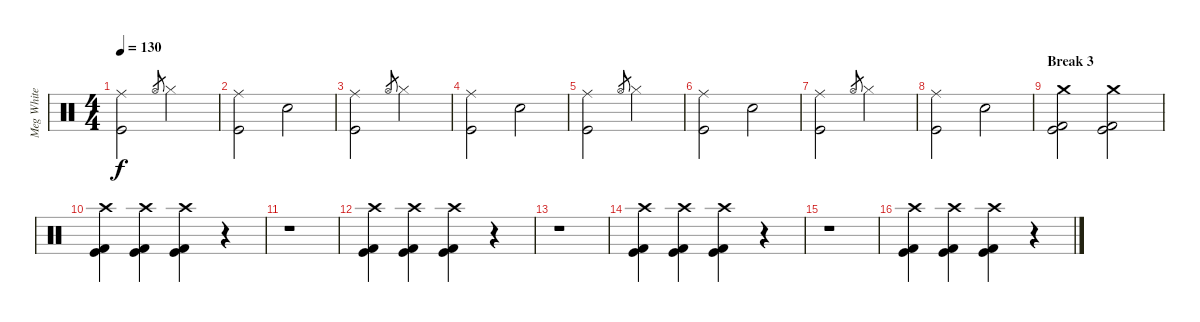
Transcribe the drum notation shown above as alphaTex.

\track ("Meg White (Drums)" "Meg White ") {instrument percussion}
\staff {score}
\articulation defaults
\ts (4 4)
\tempo 130
\clef neutral
\ks c
("Kick (hit)" "Ride (middle)").2{dy f} "Hi-Hat (open)"{h}.8{gr} "Hi-Hat (closed)".2 |
("Kick (hit)" "Ride (middle)").2 "Snare (hit) 2".2 |
("Kick (hit)" "Ride (middle)").2 "Hi-Hat (open)"{h}.8{gr} "Hi-Hat (closed)".2 |
("Kick (hit)" "Ride (middle)").2 "Snare (hit) 2".2 |
("Kick (hit)" "Ride (middle)").2 "Hi-Hat (open)"{h}.8{gr} "Hi-Hat (closed)".2 |
("Kick (hit)" "Ride (middle)").2 "Snare (hit) 2".2 |
("Kick (hit)" "Ride (middle)").2 "Hi-Hat (open)"{h}.8{gr} "Hi-Hat (closed)".2 |
("Kick (hit)" "Ride (middle)").2 "Snare (hit) 2".2 |
\section ("" "Break 3")
("Kick (hit)" "Kick (hit) 2" "Crash medium (hit)").2 ("Kick (hit)" "Kick (hit) 2" "Crash medium (hit)").2 |
("Kick (hit)" "Kick (hit) 2" "Crash high (hit)").4 ("Kick (hit)" "Kick (hit) 2" "Crash high (hit)").4 ("Kick (hit)" "Kick (hit) 2" "Crash high (hit)").4 r.4 |
r.1 |
("Kick (hit)" "Kick (hit) 2" "Crash high (hit)").4 ("Kick (hit)" "Kick (hit) 2" "Crash high (hit)").4 ("Kick (hit)" "Kick (hit) 2" "Crash high (hit)").4 r.4 |
r.1 |
("Kick (hit)" "Kick (hit) 2" "Crash high (hit)").4 ("Kick (hit)" "Kick (hit) 2" "Crash high (hit)").4 ("Kick (hit)" "Kick (hit) 2" "Crash high (hit)").4 r.4 |
r.1 |
("Kick (hit)" "Kick (hit) 2" "Crash high (hit)").4 ("Kick (hit)" "Kick (hit) 2" "Crash high (hit)").4 ("Kick (hit)" "Kick (hit) 2" "Crash high (hit)").4 r.4
